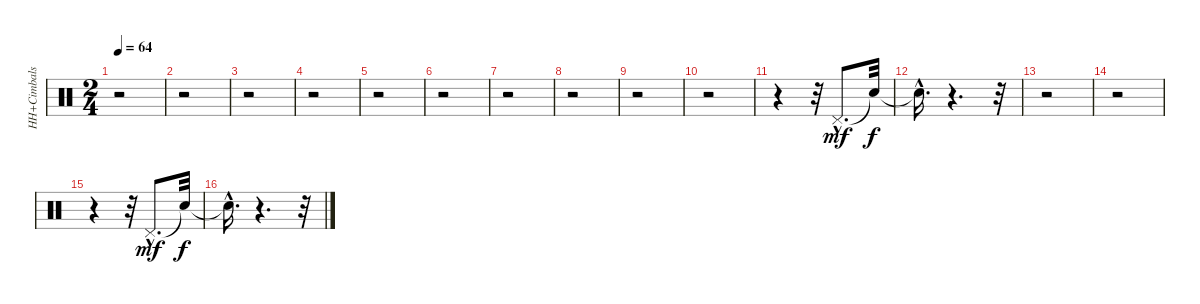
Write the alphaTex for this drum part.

\track ("HH+Cimbals" "HH+Cimbals") {instrument percussion}
\staff {score}
\articulation defaults
\ts (2 4)
\tempo 64
\clef neutral
\ks c
r.2{dy f} |
r.2 |
r.2 |
r.2 |
r.2 |
r.2 |
r.2 |
r.2 |
r.2 |
r.2 |
r.4 r.32 "Pedal Hi-Hat (hit)"{hac}.8{d dy mf} "Snare (hit)"{t}.32{dy f} |
"Snare (hit)"{hac t}.16{d} r.4{d} r.32 |
r.2 |
r.2 |
r.4 r.32 "Pedal Hi-Hat (hit)"{hac}.8{d dy mf} "Snare (hit)"{t}.32{dy f} |
"Snare (hit)"{hac t}.16{d} r.4{d} r.32
